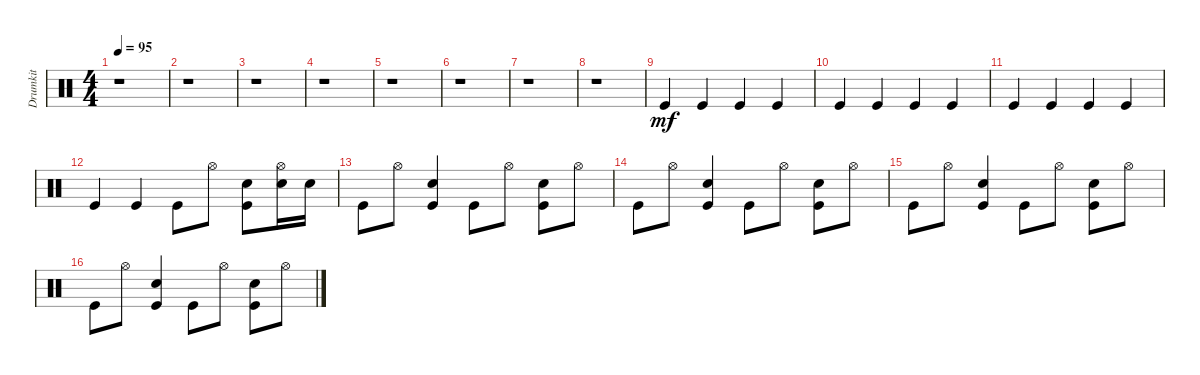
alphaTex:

\track ("Drumkit" "Drumkit") {instrument percussion}
\staff {score}
\articulation defaults
\ts (4 4)
\tempo 95
\clef neutral
\ks c
r.1{dy mf} |
r.1 |
r.1 |
r.1 |
r.1 |
r.1 |
r.1 |
r.1 |
"Kick (hit)".4 "Kick (hit)".4 "Kick (hit)".4 "Kick (hit)".4 |
"Kick (hit)".4 "Kick (hit)".4 "Kick (hit)".4 "Kick (hit)".4 |
"Kick (hit)".4 "Kick (hit)".4 "Kick (hit)".4 "Kick (hit)".4 |
"Kick (hit)".4 "Kick (hit)".4 "Kick (hit)".8 "Hi-Hat (open)".8 ("Snare (hit) 2" "Kick (hit)").8 ("Hi-Hat (open)" "Snare (hit) 2").16 "Snare (hit) 2".16 |
"Kick (hit)".8 "Hi-Hat (open)".8 ("Snare (hit) 2" "Kick (hit)").4 "Kick (hit)".8 "Hi-Hat (open)".8 ("Snare (hit) 2" "Kick (hit)").8 "Hi-Hat (open)".8 |
"Kick (hit)".8 "Hi-Hat (open)".8 ("Snare (hit) 2" "Kick (hit)").4 "Kick (hit)".8 "Hi-Hat (open)".8 ("Snare (hit) 2" "Kick (hit)").8 "Hi-Hat (open)".8 |
"Kick (hit)".8 "Hi-Hat (open)".8 ("Snare (hit) 2" "Kick (hit)").4 "Kick (hit)".8 "Hi-Hat (open)".8 ("Snare (hit) 2" "Kick (hit)").8 "Hi-Hat (open)".8 |
"Kick (hit)".8 "Hi-Hat (open)".8 ("Snare (hit) 2" "Kick (hit)").4 "Kick (hit)".8 "Hi-Hat (open)".8 ("Snare (hit) 2" "Kick (hit)").8 "Hi-Hat (open)".8
